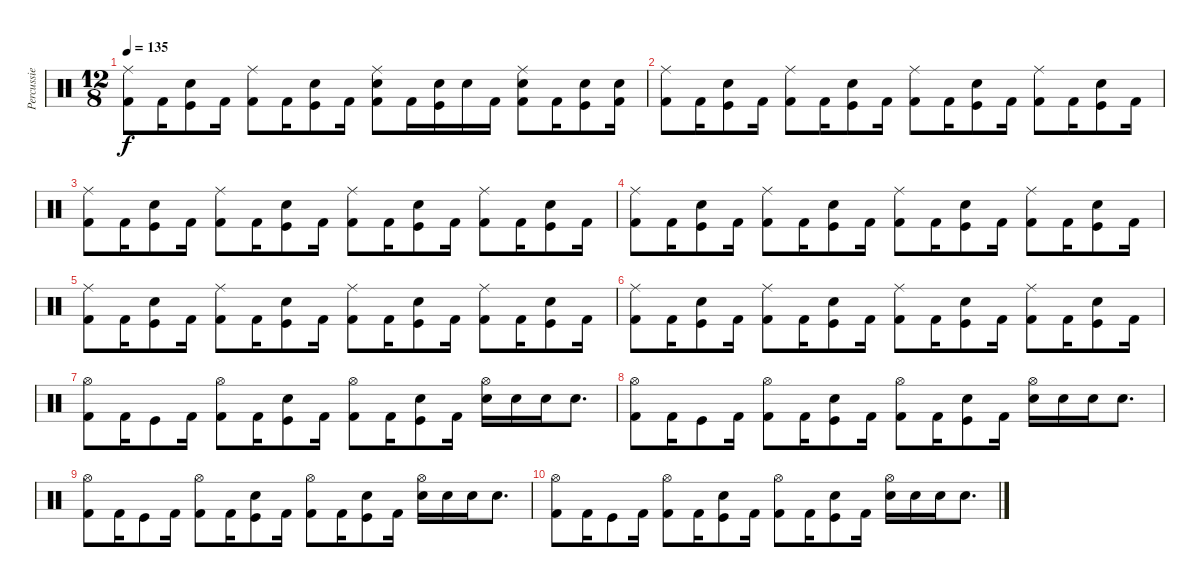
\track ("Percussie" "Percussie") {instrument percussion}
\staff {score}
\articulation defaults
\ts (12 8)
\tempo 135
\clef neutral
\ks c
("Ride (middle)" "Kick (hit) 2").8{dy f} "Kick (hit) 2".16 ("Electric Snare (hit)" "Kick (hit)").8 "Kick (hit) 2".16 ("Ride (middle)" "Kick (hit) 2").8 "Kick (hit) 2".16 ("Electric Snare (hit)" "Kick (hit)").8 "Kick (hit) 2".16 ("Ride (middle)" "Electric Snare (hit)" "Kick (hit) 2").8 "Kick (hit) 2".16 ("Electric Snare (hit)" "Kick (hit)").16 "Electric Snare (hit)".16 "Kick (hit) 2".16 ("Ride (middle)" "Electric Snare (hit)" "Kick (hit) 2").8 "Kick (hit) 2".16 ("Electric Snare (hit)" "Kick (hit)").8 ("Electric Snare (hit)" "Kick (hit) 2").16 |
("Ride (middle)" "Kick (hit) 2").8 "Kick (hit) 2".16 ("Electric Snare (hit)" "Kick (hit)").8 "Kick (hit) 2".16 ("Ride (middle)" "Kick (hit) 2").8 "Kick (hit) 2".16 ("Electric Snare (hit)" "Kick (hit)").8 "Kick (hit) 2".16 ("Ride (middle)" "Kick (hit) 2").8 "Kick (hit) 2".16 ("Electric Snare (hit)" "Kick (hit)").8 "Kick (hit) 2".16 ("Ride (middle)" "Kick (hit) 2").8 "Kick (hit) 2".16 ("Electric Snare (hit)" "Kick (hit)").8 "Kick (hit) 2".16 |
("Ride (middle)" "Kick (hit) 2").8 "Kick (hit) 2".16 ("Electric Snare (hit)" "Kick (hit)").8 "Kick (hit) 2".16 ("Ride (middle)" "Kick (hit) 2").8 "Kick (hit) 2".16 ("Electric Snare (hit)" "Kick (hit)").8 "Kick (hit) 2".16 ("Ride (middle)" "Kick (hit) 2").8 "Kick (hit) 2".16 ("Electric Snare (hit)" "Kick (hit)").8 "Kick (hit) 2".16 ("Ride (middle)" "Kick (hit) 2").8 "Kick (hit) 2".16 ("Electric Snare (hit)" "Kick (hit)").8 "Kick (hit) 2".16 |
("Ride (middle)" "Kick (hit) 2").8 "Kick (hit) 2".16 ("Electric Snare (hit)" "Kick (hit)").8 "Kick (hit) 2".16 ("Ride (middle)" "Kick (hit) 2").8 "Kick (hit) 2".16 ("Electric Snare (hit)" "Kick (hit)").8 "Kick (hit) 2".16 ("Ride (middle)" "Kick (hit) 2").8 "Kick (hit) 2".16 ("Electric Snare (hit)" "Kick (hit)").8 "Kick (hit) 2".16 ("Ride (middle)" "Kick (hit) 2").8 "Kick (hit) 2".16 ("Electric Snare (hit)" "Kick (hit)").8 "Kick (hit) 2".16 |
("Ride (middle)" "Kick (hit) 2").8 "Kick (hit) 2".16 ("Electric Snare (hit)" "Kick (hit)").8 "Kick (hit) 2".16 ("Ride (middle)" "Kick (hit) 2").8 "Kick (hit) 2".16 ("Electric Snare (hit)" "Kick (hit)").8 "Kick (hit) 2".16 ("Ride (middle)" "Kick (hit) 2").8 "Kick (hit) 2".16 ("Electric Snare (hit)" "Kick (hit)").8 "Kick (hit) 2".16 ("Ride (middle)" "Kick (hit) 2").8 "Kick (hit) 2".16 ("Electric Snare (hit)" "Kick (hit)").8 "Kick (hit) 2".16 |
("Ride (middle)" "Kick (hit) 2").8 "Kick (hit) 2".16 ("Electric Snare (hit)" "Kick (hit)").8 "Kick (hit) 2".16 ("Ride (middle)" "Kick (hit) 2").8 "Kick (hit) 2".16 ("Electric Snare (hit)" "Kick (hit)").8 "Kick (hit) 2".16 ("Ride (middle)" "Kick (hit) 2").8 "Kick (hit) 2".16 ("Electric Snare (hit)" "Kick (hit)").8 "Kick (hit) 2".16 ("Ride (middle)" "Kick (hit) 2").8 "Kick (hit) 2".16 ("Electric Snare (hit)" "Kick (hit)").8 "Kick (hit) 2".16 |
("Hi-Hat (open)" "Kick (hit) 2").8 "Kick (hit) 2".16 "Kick (hit)".8 "Kick (hit) 2".16 ("Hi-Hat (open)" "Kick (hit) 2").8 "Kick (hit) 2".16 ("Electric Snare (hit)" "Kick (hit)").8 "Kick (hit) 2".16 ("Hi-Hat (open)" "Kick (hit) 2").8 "Kick (hit) 2".16 ("Electric Snare (hit)" "Kick (hit)").8 "Kick (hit) 2".16 ("Hi-Hat (open)" "Electric Snare (hit)").16 "Electric Snare (hit)".16 "Electric Snare (hit)".16 "Electric Snare (hit)".8{d} |
("Hi-Hat (open)" "Kick (hit) 2").8 "Kick (hit) 2".16 "Kick (hit)".8 "Kick (hit) 2".16 ("Hi-Hat (open)" "Kick (hit) 2").8 "Kick (hit) 2".16 ("Electric Snare (hit)" "Kick (hit)").8 "Kick (hit) 2".16 ("Hi-Hat (open)" "Kick (hit) 2").8 "Kick (hit) 2".16 ("Electric Snare (hit)" "Kick (hit)").8 "Kick (hit) 2".16 ("Hi-Hat (open)" "Electric Snare (hit)").16 "Electric Snare (hit)".16 "Electric Snare (hit)".16 "Electric Snare (hit)".8{d} |
("Hi-Hat (open)" "Kick (hit) 2").8 "Kick (hit) 2".16 "Kick (hit)".8 "Kick (hit) 2".16 ("Hi-Hat (open)" "Kick (hit) 2").8 "Kick (hit) 2".16 ("Electric Snare (hit)" "Kick (hit)").8 "Kick (hit) 2".16 ("Hi-Hat (open)" "Kick (hit) 2").8 "Kick (hit) 2".16 ("Electric Snare (hit)" "Kick (hit)").8 "Kick (hit) 2".16 ("Hi-Hat (open)" "Electric Snare (hit)").16 "Electric Snare (hit)".16 "Electric Snare (hit)".16 "Electric Snare (hit)".8{d} |
("Hi-Hat (open)" "Kick (hit) 2").8 "Kick (hit) 2".16 "Kick (hit)".8 "Kick (hit) 2".16 ("Hi-Hat (open)" "Kick (hit) 2").8 "Kick (hit) 2".16 ("Electric Snare (hit)" "Kick (hit)").8 "Kick (hit) 2".16 ("Hi-Hat (open)" "Kick (hit) 2").8 "Kick (hit) 2".16 ("Electric Snare (hit)" "Kick (hit)").8 "Kick (hit) 2".16 ("Hi-Hat (open)" "Electric Snare (hit)").16 "Electric Snare (hit)".16 "Electric Snare (hit)".16 "Electric Snare (hit)".8{d}
